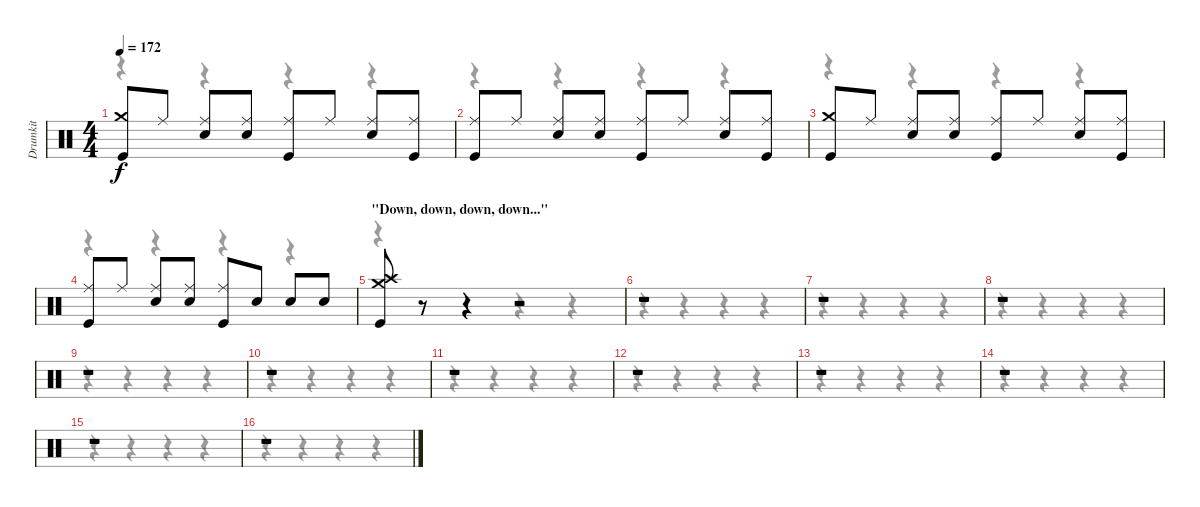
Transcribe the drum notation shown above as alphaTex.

\track ("Drumkit" "Drumkit") {instrument percussion}
\staff {score}
\articulation defaults
\voice
\ts (4 4)
\tempo 172
\clef neutral
\ks c
("Crash medium (hit)" "Kick (hit)").8{dy f} "Ride (middle)".8 ("Ride (middle)" "Snare (hit) 2").8 ("Ride (middle)" "Snare (hit) 2").8 ("Ride (middle)" "Kick (hit)").8 "Ride (middle)".8 ("Ride (middle)" "Snare (hit) 2").8 ("Ride (middle)" "Kick (hit)").8 |
("Ride (middle)" "Kick (hit)").8 "Ride (middle)".8 ("Ride (middle)" "Snare (hit) 2").8 ("Ride (middle)" "Snare (hit) 2").8 ("Ride (middle)" "Kick (hit)").8 "Ride (middle)".8 ("Ride (middle)" "Snare (hit) 2").8 ("Ride (middle)" "Kick (hit)").8 |
("Crash medium (hit)" "Kick (hit)").8 "Ride (middle)".8 ("Ride (middle)" "Snare (hit) 2").8 ("Ride (middle)" "Snare (hit) 2").8 ("Ride (middle)" "Kick (hit)").8 "Ride (middle)".8 ("Ride (middle)" "Snare (hit) 2").8 ("Ride (middle)" "Kick (hit)").8 |
("Ride (middle)" "Kick (hit)").8 "Ride (middle)".8 ("Ride (middle)" "Snare (hit) 2").8 ("Ride (middle)" "Snare (hit) 2").8 ("Ride (middle)" "Kick (hit)").8 "Snare (hit) 2".8 "Snare (hit) 2".8 "Snare (hit) 2".8 |
\section ("" "\"Down, down, down, down...\"")
("Crash medium (hit)" "Crash high (hit)" "Kick (hit)").8 r.8 r.4 r.2 |
r.1 |
r.1 |
r.1 |
r.1 |
r.1 |
r.1 |
r.1 |
r.1 |
r.1 |
r.1 |
r.1
\voice
\clef neutral
\ottava regular
\simile none
\ks c
r.4{dy f} r.4 r.4 r.4 |
r.4 r.4 r.4 r.4 |
r.4 r.4 r.4 r.4 |
r.4 r.4 r.4 r.4 |
r.4 r.4 r.4 r.4 |
r.4 r.4 r.4 r.4 |
r.4 r.4 r.4 r.4 |
r.4 r.4 r.4 r.4 |
r.4 r.4 r.4 r.4 |
r.4 r.4 r.4 r.4 |
r.4 r.4 r.4 r.4 |
r.4 r.4 r.4 r.4 |
r.4 r.4 r.4 r.4 |
r.4 r.4 r.4 r.4 |
r.4 r.4 r.4 r.4 |
r.4 r.4 r.4 r.4
